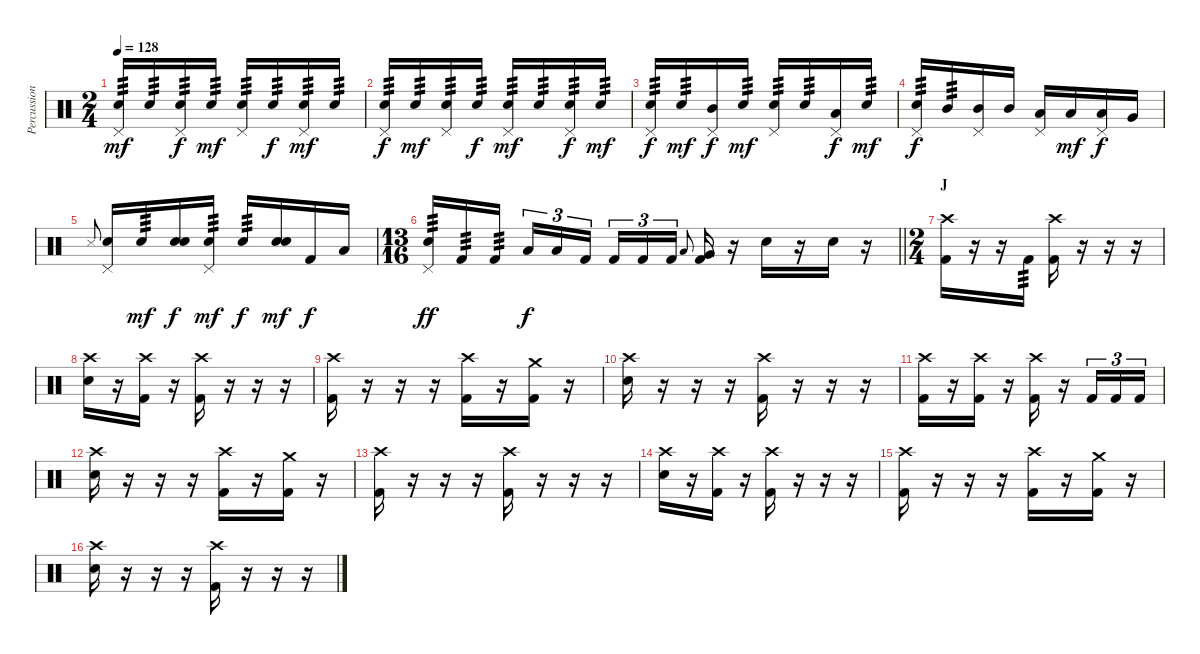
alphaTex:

\track ("Percussion" "Percussion") {instrument percussion}
\staff {score}
\articulation defaults
\ts (2 4)
\tempo 128
\clef neutral
\ks c
("Pedal Hi-Hat (hit)" "Snare (hit) 2").16{tp 3 dy mf} "Snare (hit) 2".16{tp 3} ("Pedal Hi-Hat (hit)" "Snare (hit) 2").16{tp 3 dy f} "Snare (hit) 2".16{tp 3 dy mf} ("Pedal Hi-Hat (hit)" "Snare (hit) 2").16{tp 3} "Snare (hit) 2".16{tp 3 dy f} ("Pedal Hi-Hat (hit)" "Snare (hit) 2").16{tp 3 dy mf} "Snare (hit) 2".16{tp 3} |
("Pedal Hi-Hat (hit)" "Snare (hit) 2").16{tp 3 dy f} "Snare (hit) 2".16{tp 3 dy mf} ("Pedal Hi-Hat (hit)" "Snare (hit) 2").16{tp 3} "Snare (hit) 2".16{tp 3 dy f} ("Pedal Hi-Hat (hit)" "Snare (hit) 2").16{tp 3 dy mf} "Snare (hit) 2".16{tp 3} ("Pedal Hi-Hat (hit)" "Snare (hit) 2").16{tp 3 dy f} "Snare (hit) 2".16{tp 3 dy mf} |
("Pedal Hi-Hat (hit)" "Snare (hit) 2").16{tp 3 dy f} "Snare (hit) 2".16{tp 3 dy mf} ("Pedal Hi-Hat (hit)" "Mid Tom (hit)").16{dy f} "Snare (hit) 2".16{tp 3 dy mf} ("Pedal Hi-Hat (hit)" "Snare (hit) 2").16{tp 3} "Snare (hit) 2".16{tp 3} ("Pedal Hi-Hat (hit)" "Low Tom (hit)").16{dy f} "Snare (hit) 2".16{tp 3 dy mf} |
("Pedal Hi-Hat (hit)" "Snare (hit) 2").16{tp 3 dy f} "Mid Tom (hit)".16{tp 3} ("Pedal Hi-Hat (hit)" "Mid Tom (hit)").16 "Mid Tom (hit)".16 ("Pedal Hi-Hat (hit)" "Low Tom (hit)").16 "Low Tom (hit)".16{dy mf} ("Pedal Hi-Hat (hit)" "Low Tom (hit)").16{dy f} "Very Low Tom (hit)".16 |
"Metronome (hit)".8{gr onbeat} ("Pedal Hi-Hat (hit)" "Snare (hit) 2").16 "Snare (hit) 2".16{tp 3 dy mf} ("Snare (hit)" "Snare (hit) 2").16{dy f} ("Pedal Hi-Hat (hit)" "Snare (hit) 2").16{tp 3 dy mf} "Snare (hit) 2".16{tp 3 dy f} ("Snare (hit)" "Snare (hit) 2").16{dy mf} "Kick (hit) 2".16{dy f} "Low Floor Tom (hit)".16 |
\ts (13 16)
\barLineRight lightlight
("Pedal Hi-Hat (hit)" "Snare (hit) 2").16{tp 3 dy ff} "Kick (hit) 2".16{tp 3} "Kick (hit) 2".16{tp 3} "Low Tom (hit)".16{tu (3 2) dy f} "Low Tom (hit)".16{tu (3 2)} "Kick (hit) 2".16{tu (3 2)} "Kick (hit) 2".16{tu (3 2)} "Kick (hit) 2".16{tu (3 2)} "Kick (hit) 2".16{tu (3 2)} "Low Tom (hit)".8{gr onbeat} ("Very Low Tom (hit)" "Kick (hit) 2").16 r.16 "Snare (hit)".16 r.16 "Snare (hit)".16 r.16 |
\ts (2 4)
\section ("" "J")
("Crash high (hit)" "Kick (hit) 2").16 r.16 r.16 "Kick (hit) 2".16{tp 3} ("Crash high (hit)" "Kick (hit) 2").16 r.16 r.16 r.16 |
("Crash high (hit)" "Snare (hit) 2").16 r.16 ("Crash high (hit)" "Kick (hit) 2").16 r.16 ("Crash high (hit)" "Kick (hit) 2").16 r.16 r.16 r.16 |
("Crash high (hit)" "Kick (hit) 2").16 r.16 r.16 r.16 ("Crash high (hit)" "Kick (hit) 2").16 r.16 ("Crash medium (hit)" "Kick (hit) 2").16 r.16 |
("Crash high (hit)" "Snare (hit) 2").16 r.16 r.16 r.16 ("Crash high (hit)" "Kick (hit) 2").16 r.16 r.16 r.16 |
("Crash high (hit)" "Kick (hit) 2").16 r.16 ("Crash high (hit)" "Kick (hit) 2").16 r.16 ("Crash high (hit)" "Kick (hit) 2").16 r.16 "Kick (hit) 2".16{tu (3 2)} "Kick (hit) 2".16{tu (3 2)} "Kick (hit) 2".16{tu (3 2)} |
("Crash high (hit)" "Snare (hit) 2").16 r.16 r.16 r.16 ("Crash high (hit)" "Kick (hit) 2").16 r.16 ("Crash medium (hit)" "Kick (hit) 2").16 r.16 |
("Crash high (hit)" "Kick (hit) 2").16 r.16 r.16 r.16 ("Crash high (hit)" "Kick (hit) 2").16 r.16 r.16 r.16 |
("Crash high (hit)" "Snare (hit) 2").16 r.16 ("Crash high (hit)" "Kick (hit) 2").16 r.16 ("Crash high (hit)" "Kick (hit) 2").16 r.16 r.16 r.16 |
("Crash high (hit)" "Kick (hit) 2").16 r.16 r.16 r.16 ("Crash high (hit)" "Kick (hit) 2").16 r.16 ("Crash medium (hit)" "Kick (hit) 2").16 r.16 |
("Crash high (hit)" "Snare (hit) 2").16 r.16 r.16 r.16 ("Crash high (hit)" "Kick (hit) 2").16 r.16 r.16 r.16
